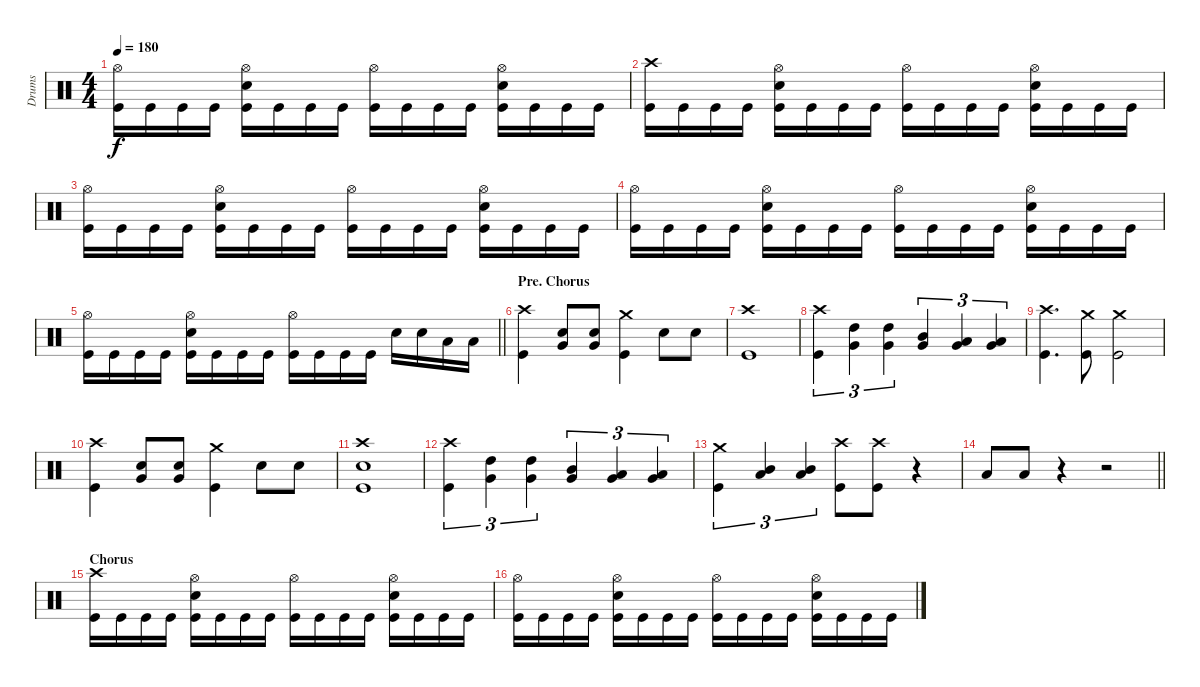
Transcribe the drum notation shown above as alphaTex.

\track ("Drums" "Drums") {instrument percussion}
\staff {score}
\articulation defaults
\ts (4 4)
\tempo 180
\clef neutral
\ks c
("Hi-Hat (open)" "Kick (hit)").16{dy f} "Kick (hit)".16 "Kick (hit)".16 "Kick (hit)".16 ("Hi-Hat (open)" "Electric Snare (hit)" "Kick (hit)").16 "Kick (hit)".16 "Kick (hit)".16 "Kick (hit)".16 ("Hi-Hat (open)" "Kick (hit)").16 "Kick (hit)".16 "Kick (hit)".16 "Kick (hit)".16 ("Hi-Hat (open)" "Electric Snare (hit)" "Kick (hit)").16 "Kick (hit)".16 "Kick (hit)".16 "Kick (hit)".16 |
("Crash high (hit)" "Kick (hit)").16 "Kick (hit)".16 "Kick (hit)".16 "Kick (hit)".16 ("Hi-Hat (open)" "Electric Snare (hit)" "Kick (hit)").16 "Kick (hit)".16 "Kick (hit)".16 "Kick (hit)".16 ("Hi-Hat (open)" "Kick (hit)").16 "Kick (hit)".16 "Kick (hit)".16 "Kick (hit)".16 ("Hi-Hat (open)" "Electric Snare (hit)" "Kick (hit)").16 "Kick (hit)".16 "Kick (hit)".16 "Kick (hit)".16 |
("Hi-Hat (open)" "Kick (hit)").16 "Kick (hit)".16 "Kick (hit)".16 "Kick (hit)".16 ("Hi-Hat (open)" "Electric Snare (hit)" "Kick (hit)").16 "Kick (hit)".16 "Kick (hit)".16 "Kick (hit)".16 ("Hi-Hat (open)" "Kick (hit)").16 "Kick (hit)".16 "Kick (hit)".16 "Kick (hit)".16 ("Hi-Hat (open)" "Electric Snare (hit)" "Kick (hit)").16 "Kick (hit)".16 "Kick (hit)".16 "Kick (hit)".16 |
("Hi-Hat (open)" "Kick (hit)").16 "Kick (hit)".16 "Kick (hit)".16 "Kick (hit)".16 ("Hi-Hat (open)" "Electric Snare (hit)" "Kick (hit)").16 "Kick (hit)".16 "Kick (hit)".16 "Kick (hit)".16 ("Hi-Hat (open)" "Kick (hit)").16 "Kick (hit)".16 "Kick (hit)".16 "Kick (hit)".16 ("Hi-Hat (open)" "Electric Snare (hit)" "Kick (hit)").16 "Kick (hit)".16 "Kick (hit)".16 "Kick (hit)".16 |
\barLineRight lightlight
("Hi-Hat (open)" "Kick (hit)").16 "Kick (hit)".16 "Kick (hit)".16 "Kick (hit)".16 ("Hi-Hat (open)" "Electric Snare (hit)" "Kick (hit)").16 "Kick (hit)".16 "Kick (hit)".16 "Kick (hit)".16 ("Hi-Hat (open)" "Kick (hit)").16 "Kick (hit)".16 "Kick (hit)".16 "Kick (hit)".16 "Electric Snare (hit)".16 "Electric Snare (hit)".16 "Low Tom (hit)".16 "Low Tom (hit)".16 |
\section ("" "Pre. Chorus")
("Crash high (hit)" "Kick (hit)").4 ("Very Low Tom (hit)" "Electric Snare (hit)").8 ("Very Low Tom (hit)" "Electric Snare (hit)").8 ("Crash medium (hit)" "Kick (hit)").4 "Electric Snare (hit)".8 "Electric Snare (hit)".8 |
("Crash high (hit)" "Kick (hit)").1 |
("Crash high (hit)" "Kick (hit)").4{tu (3 2)} ("Very Low Tom (hit)" "High Tom (hit)").4{tu (3 2)} ("Very Low Tom (hit)" "High Tom (hit)").4{tu (3 2)} ("Very Low Tom (hit)" "Mid Tom (hit)").4{tu (3 2)} ("Very Low Tom (hit)" "Low Tom (hit)").4{tu (3 2)} ("Low Floor Tom (hit)" "Very Low Tom (hit)").4{tu (3 2)} |
("Crash high (hit)" "Kick (hit)").4{d} ("Crash medium (hit)" "Kick (hit)").8 ("Crash medium (hit)" "Kick (hit)").2 |
("Crash high (hit)" "Kick (hit)").4 ("Very Low Tom (hit)" "Electric Snare (hit)").8 ("Very Low Tom (hit)" "Electric Snare (hit)").8 ("Crash medium (hit)" "Kick (hit)").4 "Electric Snare (hit)".8 "Electric Snare (hit)".8 |
("Crash high (hit)" "Electric Snare (hit)" "Kick (hit)").1 |
("Crash high (hit)" "Kick (hit)").4{tu (3 2)} ("Very Low Tom (hit)" "High Tom (hit)").4{tu (3 2)} ("Very Low Tom (hit)" "High Tom (hit)").4{tu (3 2)} ("Very Low Tom (hit)" "Mid Tom (hit)").4{tu (3 2)} ("Very Low Tom (hit)" "Low Tom (hit)").4{tu (3 2)} ("Very Low Tom (hit)" "Low Tom (hit)").4{tu (3 2)} |
("Crash medium (hit)" "Kick (hit)").4{tu (3 2)} ("Low Tom (hit)" "Mid Tom (hit)").4{tu (3 2)} ("Low Tom (hit)" "Mid Tom (hit)").4{tu (3 2)} ("Crash high (hit)" "Kick (hit)").8 ("Crash high (hit)" "Kick (hit)").8 r.4 |
\barLineRight lightlight "Low Tom (hit)".8 "Low Tom (hit)".8
r.4 r.2 |
\section ("" "Chorus")
("Crash high (hit)" "Kick (hit)").16 "Kick (hit)".16 "Kick (hit)".16 "Kick (hit)".16 ("Hi-Hat (open)" "Electric Snare (hit)" "Kick (hit)").16 "Kick (hit)".16 "Kick (hit)".16 "Kick (hit)".16 ("Hi-Hat (open)" "Kick (hit)").16 "Kick (hit)".16 "Kick (hit)".16 "Kick (hit)".16 ("Hi-Hat (open)" "Electric Snare (hit)" "Kick (hit)").16 "Kick (hit)".16 "Kick (hit)".16 "Kick (hit)".16 |
("Hi-Hat (open)" "Kick (hit)").16 "Kick (hit)".16 "Kick (hit)".16 "Kick (hit)".16 ("Hi-Hat (open)" "Electric Snare (hit)" "Kick (hit)").16 "Kick (hit)".16 "Kick (hit)".16 "Kick (hit)".16 ("Hi-Hat (open)" "Kick (hit)").16 "Kick (hit)".16 "Kick (hit)".16 "Kick (hit)".16 ("Hi-Hat (open)" "Electric Snare (hit)" "Kick (hit)").16 "Kick (hit)".16 "Kick (hit)".16 "Kick (hit)".16
